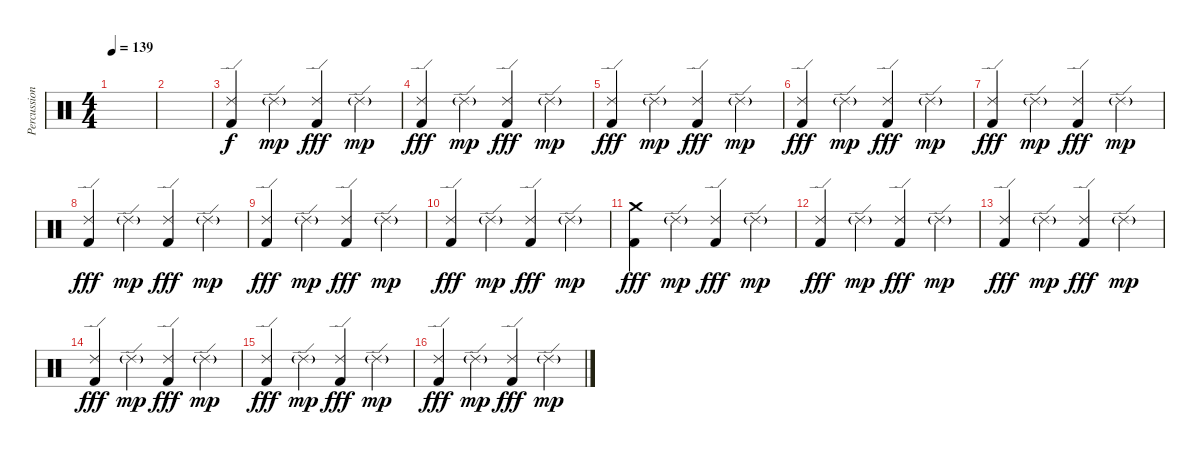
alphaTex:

\track ("Percussion" "Percussion") {instrument percussion}
\staff {score}
\articulation defaults
\ts (4 4)
\tempo 139
\clef neutral
\ks c
|
|
("Ride (edge) 2" "Kick (hit) 2").4 "Ride (edge) 2"{g}.4{dy mp} ("Ride (edge) 2" "Kick (hit) 2").4{dy fff} "Ride (edge) 2"{g}.4{dy mp} |
("Ride (edge) 2" "Kick (hit) 2").4{dy fff} "Ride (edge) 2"{g}.4{dy mp} ("Ride (edge) 2" "Kick (hit) 2").4{dy fff} "Ride (edge) 2"{g}.4{dy mp} |
("Ride (edge) 2" "Kick (hit) 2").4{dy fff} "Ride (edge) 2"{g}.4{dy mp} ("Ride (edge) 2" "Kick (hit) 2").4{dy fff} "Ride (edge) 2"{g}.4{dy mp} |
("Ride (edge) 2" "Kick (hit) 2").4{dy fff} "Ride (edge) 2"{g}.4{dy mp} ("Ride (edge) 2" "Kick (hit) 2").4{dy fff} "Ride (edge) 2"{g}.4{dy mp} |
("Ride (edge) 2" "Kick (hit) 2").4{dy fff} "Ride (edge) 2"{g}.4{dy mp} ("Ride (edge) 2" "Kick (hit) 2").4{dy fff} "Ride (edge) 2"{g}.4{dy mp} |
("Ride (edge) 2" "Kick (hit) 2").4{dy fff} "Ride (edge) 2"{g}.4{dy mp} ("Ride (edge) 2" "Kick (hit) 2").4{dy fff} "Ride (edge) 2"{g}.4{dy mp} |
("Ride (edge) 2" "Kick (hit) 2").4{dy fff} "Ride (edge) 2"{g}.4{dy mp} ("Ride (edge) 2" "Kick (hit) 2").4{dy fff} "Ride (edge) 2"{g}.4{dy mp} |
("Ride (edge) 2" "Kick (hit) 2").4{dy fff} "Ride (edge) 2"{g}.4{dy mp} ("Ride (edge) 2" "Kick (hit) 2").4{dy fff} "Ride (edge) 2"{g}.4{dy mp} |
("Crash medium (hit)" "Kick (hit) 2").4{dy fff} "Ride (edge) 2"{g}.4{dy mp} ("Ride (edge) 2" "Kick (hit) 2").4{dy fff} "Ride (edge) 2"{g}.4{dy mp} |
("Ride (edge) 2" "Kick (hit) 2").4{dy fff} "Ride (edge) 2"{g}.4{dy mp} ("Ride (edge) 2" "Kick (hit) 2").4{dy fff} "Ride (edge) 2"{g}.4{dy mp} |
("Ride (edge) 2" "Kick (hit) 2").4{dy fff} "Ride (edge) 2"{g}.4{dy mp} ("Ride (edge) 2" "Kick (hit) 2").4{dy fff} "Ride (edge) 2"{g}.4{dy mp} |
("Ride (edge) 2" "Kick (hit) 2").4{dy fff} "Ride (edge) 2"{g}.4{dy mp} ("Ride (edge) 2" "Kick (hit) 2").4{dy fff} "Ride (edge) 2"{g}.4{dy mp} |
("Ride (edge) 2" "Kick (hit) 2").4{dy fff} "Ride (edge) 2"{g}.4{dy mp} ("Ride (edge) 2" "Kick (hit) 2").4{dy fff} "Ride (edge) 2"{g}.4{dy mp} |
("Ride (edge) 2" "Kick (hit) 2").4{dy fff} "Ride (edge) 2"{g}.4{dy mp} ("Ride (edge) 2" "Kick (hit) 2").4{dy fff} "Ride (edge) 2"{g}.4{dy mp}
